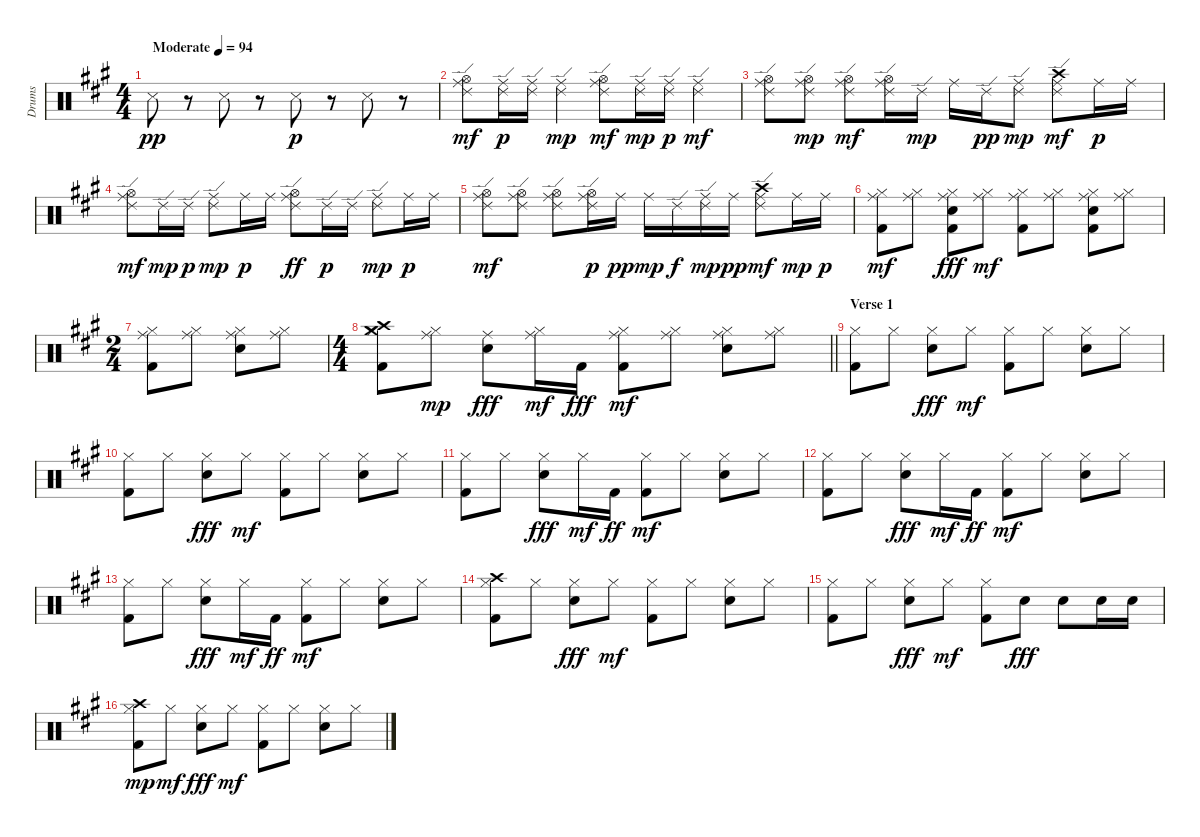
\track ("Drums" "Drums") {instrument percussion}
\staff {score}
\articulation defaults
\ts (4 4)
\tempo (94 "Moderate")
\clef neutral
\ks a "Snare (side stick) 3".8{dy pp}
r.8 "Snare (side stick) 3".8 r.8 "Snare (side stick) 3".8{dy p} r.8 "Snare (side stick) 3".8 r.8 |
("Hi-Hat (open)" "Ride (middle)" "Ride (edge) 2").8{dy mf} ("Ride (middle)" "Ride (edge) 2").16{dy p} ("Ride (middle)" "Ride (edge) 2").16 ("Ride (middle)" "Ride (edge) 2").4{dy mp} ("Hi-Hat (open)" "Ride (middle)" "Ride (edge) 2").8{dy mf} ("Ride (middle)" "Ride (edge) 2").16{dy mp} ("Ride (middle)" "Ride (edge) 2").16{dy p} ("Ride (middle)" "Ride (edge) 2").4{dy mf} |
("Hi-Hat (open)" "Ride (middle)" "Ride (edge) 2").8 ("Hi-Hat (open)" "Ride (middle)" "Ride (edge) 2").8{dy mp} ("Hi-Hat (open)" "Ride (middle)" "Ride (edge) 2").8{dy mf} ("Hi-Hat (open)" "Ride (middle)" "Ride (edge) 2").16 "Ride (edge) 2".16{dy mp} "Ride (middle)".16 "Ride (edge) 2".16{dy pp} ("Ride (middle)" "Ride (edge) 2").8{dy mp} ("Crash high (hit)" "Ride (middle)" "Ride (edge) 2").8{dy mf} "Ride (middle)".16{dy p} "Ride (middle)".16 |
("Hi-Hat (open)" "Ride (middle)" "Ride (edge) 2").8{dy mf} "Ride (edge) 2".16{dy mp} "Ride (edge) 2".16{dy p} ("Ride (middle)" "Ride (edge) 2").8{dy mp} "Ride (middle)".16{dy p} "Ride (middle)".16 ("Hi-Hat (open)" "Ride (middle)" "Ride (edge) 2").8{dy ff} "Ride (edge) 2".16{dy p} "Ride (edge) 2".16 ("Ride (middle)" "Ride (edge) 2").8{dy mp} "Ride (middle)".16{dy p} "Ride (middle)".16 |
("Hi-Hat (open)" "Ride (middle)" "Ride (edge) 2").8{dy mf} ("Hi-Hat (open)" "Ride (middle)" "Ride (edge) 2").8 ("Hi-Hat (open)" "Ride (middle)" "Ride (edge) 2").8 ("Hi-Hat (open)" "Ride (middle)" "Ride (edge) 2").16{dy p} "Ride (middle)".16{dy pp} "Ride (middle)".16{dy mp} "Ride (edge) 2".16{dy f} ("Ride (middle)" "Ride (edge) 2").16{dy mp} "Ride (middle)".16{dy pp} ("Crash high (hit)" "Ride (middle)" "Ride (edge) 2").8{dy mf} "Ride (middle)".16{dy mp} "Ride (middle)".16{dy p} |
("Kick (hit) 2" "Hi-Hat (closed)" "Ride (middle)").8{dy mf} ("Hi-Hat (closed)" "Ride (middle)").8 ("Kick (hit) 2" "Electric Snare (hit)" "Hi-Hat (closed)" "Ride (middle)").8{dy fff} ("Hi-Hat (closed)" "Ride (middle)").8{dy mf} ("Kick (hit) 2" "Hi-Hat (closed)" "Ride (middle)").8 ("Hi-Hat (closed)" "Ride (middle)").8 ("Kick (hit) 2" "Electric Snare (hit)" "Hi-Hat (closed)" "Ride (middle)").8 ("Hi-Hat (closed)" "Ride (middle)").8 |
\ts (2 4)
("Kick (hit) 2" "Hi-Hat (closed)" "Ride (middle)").8 ("Hi-Hat (closed)" "Ride (middle)").8 ("Electric Snare (hit)" "Hi-Hat (closed)" "Ride (middle)").8 ("Hi-Hat (closed)" "Ride (middle)").8 |
\ts (4 4)
\barLineRight lightlight
("Kick (hit) 2" "Hi-Hat (closed)" "Crash high (hit)" "Crash medium (hit)").8 ("Hi-Hat (closed)" "Ride (middle)").8{dy mp} ("Electric Snare (hit)" "Ride (middle)").8{dy fff} ("Hi-Hat (closed)" "Ride (middle)").16{dy mf} "Kick (hit) 2".16{dy fff} ("Kick (hit) 2" "Hi-Hat (closed)" "Ride (middle)").8{dy mf} ("Hi-Hat (closed)" "Ride (middle)").8 ("Electric Snare (hit)" "Hi-Hat (closed)" "Ride (middle)").8 ("Hi-Hat (closed)" "Ride (middle)").8 |
\section ("" "Verse 1")
("Kick (hit) 2" "Hi-Hat (closed)").8 "Hi-Hat (closed)".8 ("Electric Snare (hit)" "Hi-Hat (closed)").8{dy fff} "Hi-Hat (closed)".8{dy mf} ("Kick (hit) 2" "Hi-Hat (closed)").8 "Hi-Hat (closed)".8 ("Electric Snare (hit)" "Hi-Hat (closed)").8 "Hi-Hat (closed)".8 |
("Kick (hit) 2" "Hi-Hat (closed)").8 "Hi-Hat (closed)".8 ("Electric Snare (hit)" "Hi-Hat (closed)").8{dy fff} "Hi-Hat (closed)".8{dy mf} ("Kick (hit) 2" "Hi-Hat (closed)").8 "Hi-Hat (closed)".8 ("Electric Snare (hit)" "Hi-Hat (closed)").8 "Hi-Hat (closed)".8 |
("Kick (hit) 2" "Hi-Hat (closed)").8 "Hi-Hat (closed)".8 ("Electric Snare (hit)" "Hi-Hat (closed)").8{dy fff} "Hi-Hat (closed)".16{dy mf} "Kick (hit) 2".16{dy ff} ("Kick (hit) 2" "Hi-Hat (closed)").8{dy mf} "Hi-Hat (closed)".8 ("Electric Snare (hit)" "Hi-Hat (closed)").8 "Hi-Hat (closed)".8 |
("Kick (hit) 2" "Hi-Hat (closed)").8 "Hi-Hat (closed)".8 ("Electric Snare (hit)" "Hi-Hat (closed)").8{dy fff} "Hi-Hat (closed)".16{dy mf} "Kick (hit) 2".16{dy ff} ("Kick (hit) 2" "Hi-Hat (closed)").8{dy mf} "Hi-Hat (closed)".8 ("Electric Snare (hit)" "Hi-Hat (closed)").8 "Hi-Hat (closed)".8 |
("Kick (hit) 2" "Hi-Hat (closed)").8 "Hi-Hat (closed)".8 ("Electric Snare (hit)" "Hi-Hat (closed)").8{dy fff} "Hi-Hat (closed)".16{dy mf} "Kick (hit) 2".16{dy ff} ("Kick (hit) 2" "Hi-Hat (closed)").8{dy mf} "Hi-Hat (closed)".8 ("Electric Snare (hit)" "Hi-Hat (closed)").8 "Hi-Hat (closed)".8 |
("Kick (hit) 2" "Hi-Hat (closed)" "Crash high (hit)").8 "Hi-Hat (closed)".8 ("Electric Snare (hit)" "Hi-Hat (closed)").8{dy fff} "Hi-Hat (closed)".8{dy mf} ("Kick (hit) 2" "Hi-Hat (closed)").8 "Hi-Hat (closed)".8 ("Electric Snare (hit)" "Hi-Hat (closed)").8 "Hi-Hat (closed)".8 |
("Kick (hit) 2" "Hi-Hat (closed)").8 "Hi-Hat (closed)".8 ("Electric Snare (hit)" "Hi-Hat (closed)").8{dy fff} "Hi-Hat (closed)".8{dy mf} ("Kick (hit) 2" "Hi-Hat (closed)").8 "Electric Snare (hit)".8{dy fff} "Electric Snare (hit)".8 "Electric Snare (hit)".16 "Electric Snare (hit)".16 |
("Kick (hit) 2" "Hi-Hat (closed)" "Crash high (hit)").8{dy mp} "Hi-Hat (closed)".8{dy mf} ("Electric Snare (hit)" "Hi-Hat (closed)").8{dy fff} "Hi-Hat (closed)".8{dy mf} ("Kick (hit) 2" "Hi-Hat (closed)").8 "Hi-Hat (closed)".8 ("Electric Snare (hit)" "Hi-Hat (closed)").8 "Hi-Hat (closed)".8
